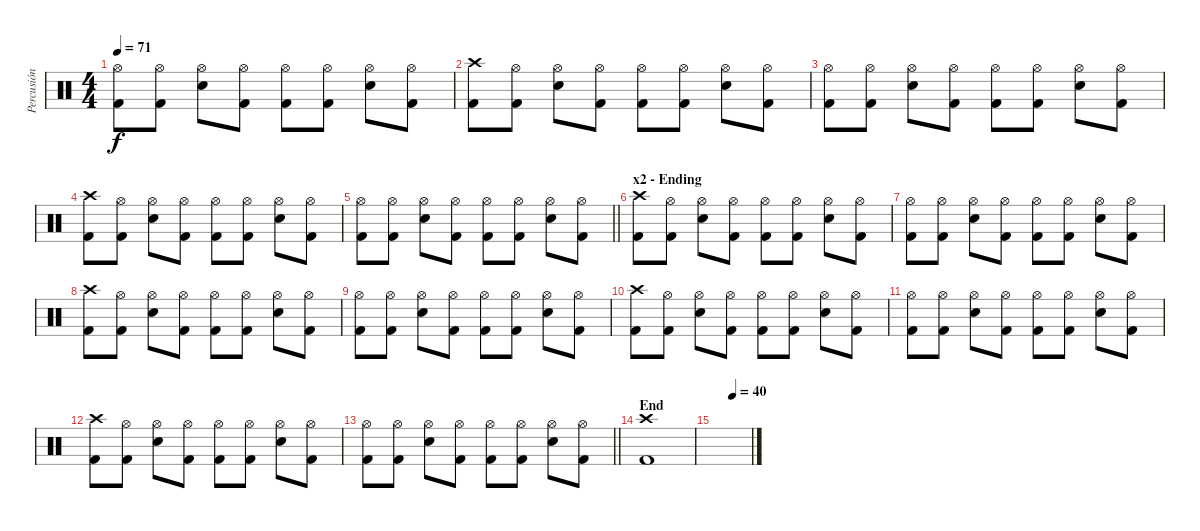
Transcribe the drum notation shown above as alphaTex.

\track ("Percusión" "Percusión") {instrument percussion}
\staff {score}
\articulation defaults
\ts (4 4)
\tempo 71
\clef neutral
\ks c
("Hi-Hat (open)" "Kick (hit) 2").8{dy f} ("Hi-Hat (open)" "Kick (hit) 2").8 ("Hi-Hat (open)" "Snare (hit) 2").8 ("Hi-Hat (open)" "Kick (hit) 2").8 ("Hi-Hat (open)" "Kick (hit) 2").8 ("Hi-Hat (open)" "Kick (hit) 2").8 ("Hi-Hat (open)" "Snare (hit) 2").8 ("Hi-Hat (open)" "Kick (hit) 2").8 |
("Crash high (hit)" "Kick (hit) 2").8 ("Hi-Hat (open)" "Kick (hit) 2").8 ("Hi-Hat (open)" "Snare (hit) 2").8 ("Hi-Hat (open)" "Kick (hit) 2").8 ("Hi-Hat (open)" "Kick (hit) 2").8 ("Hi-Hat (open)" "Kick (hit) 2").8 ("Hi-Hat (open)" "Snare (hit) 2").8 ("Hi-Hat (open)" "Kick (hit) 2").8 |
("Hi-Hat (open)" "Kick (hit) 2").8 ("Hi-Hat (open)" "Kick (hit) 2").8 ("Hi-Hat (open)" "Snare (hit) 2").8 ("Hi-Hat (open)" "Kick (hit) 2").8 ("Hi-Hat (open)" "Kick (hit) 2").8 ("Hi-Hat (open)" "Kick (hit) 2").8 ("Hi-Hat (open)" "Snare (hit) 2").8 ("Hi-Hat (open)" "Kick (hit) 2").8 |
("Crash high (hit)" "Kick (hit) 2").8 ("Hi-Hat (open)" "Kick (hit) 2").8 ("Hi-Hat (open)" "Snare (hit) 2").8 ("Hi-Hat (open)" "Kick (hit) 2").8 ("Hi-Hat (open)" "Kick (hit) 2").8 ("Hi-Hat (open)" "Kick (hit) 2").8 ("Hi-Hat (open)" "Snare (hit) 2").8 ("Hi-Hat (open)" "Kick (hit) 2").8 |
\barLineRight lightlight
("Hi-Hat (open)" "Kick (hit) 2").8 ("Hi-Hat (open)" "Kick (hit) 2").8 ("Hi-Hat (open)" "Snare (hit) 2").8 ("Hi-Hat (open)" "Kick (hit) 2").8 ("Hi-Hat (open)" "Kick (hit) 2").8 ("Hi-Hat (open)" "Kick (hit) 2").8 ("Hi-Hat (open)" "Snare (hit) 2").8 ("Hi-Hat (open)" "Kick (hit) 2").8 |
\section ("" "x2 - Ending")
("Crash high (hit)" "Kick (hit) 2").8 ("Hi-Hat (open)" "Kick (hit) 2").8 ("Hi-Hat (open)" "Snare (hit) 2").8 ("Hi-Hat (open)" "Kick (hit) 2").8 ("Hi-Hat (open)" "Kick (hit) 2").8 ("Hi-Hat (open)" "Kick (hit) 2").8 ("Hi-Hat (open)" "Snare (hit) 2").8 ("Hi-Hat (open)" "Kick (hit) 2").8 |
("Hi-Hat (open)" "Kick (hit) 2").8 ("Hi-Hat (open)" "Kick (hit) 2").8 ("Hi-Hat (open)" "Snare (hit) 2").8 ("Hi-Hat (open)" "Kick (hit) 2").8 ("Hi-Hat (open)" "Kick (hit) 2").8 ("Hi-Hat (open)" "Kick (hit) 2").8 ("Hi-Hat (open)" "Snare (hit) 2").8 ("Hi-Hat (open)" "Kick (hit) 2").8 |
("Crash high (hit)" "Kick (hit) 2").8 ("Hi-Hat (open)" "Kick (hit) 2").8 ("Hi-Hat (open)" "Snare (hit) 2").8 ("Hi-Hat (open)" "Kick (hit) 2").8 ("Hi-Hat (open)" "Kick (hit) 2").8 ("Hi-Hat (open)" "Kick (hit) 2").8 ("Hi-Hat (open)" "Snare (hit) 2").8 ("Hi-Hat (open)" "Kick (hit) 2").8 |
("Hi-Hat (open)" "Kick (hit) 2").8 ("Hi-Hat (open)" "Kick (hit) 2").8 ("Hi-Hat (open)" "Snare (hit) 2").8 ("Hi-Hat (open)" "Kick (hit) 2").8 ("Hi-Hat (open)" "Kick (hit) 2").8 ("Hi-Hat (open)" "Kick (hit) 2").8 ("Hi-Hat (open)" "Snare (hit) 2").8 ("Hi-Hat (open)" "Kick (hit) 2").8 |
("Crash high (hit)" "Kick (hit) 2").8 ("Hi-Hat (open)" "Kick (hit) 2").8 ("Hi-Hat (open)" "Snare (hit) 2").8 ("Hi-Hat (open)" "Kick (hit) 2").8 ("Hi-Hat (open)" "Kick (hit) 2").8 ("Hi-Hat (open)" "Kick (hit) 2").8 ("Hi-Hat (open)" "Snare (hit) 2").8 ("Hi-Hat (open)" "Kick (hit) 2").8 |
("Hi-Hat (open)" "Kick (hit) 2").8 ("Hi-Hat (open)" "Kick (hit) 2").8 ("Hi-Hat (open)" "Snare (hit) 2").8 ("Hi-Hat (open)" "Kick (hit) 2").8 ("Hi-Hat (open)" "Kick (hit) 2").8 ("Hi-Hat (open)" "Kick (hit) 2").8 ("Hi-Hat (open)" "Snare (hit) 2").8 ("Hi-Hat (open)" "Kick (hit) 2").8 |
("Crash high (hit)" "Kick (hit) 2").8 ("Hi-Hat (open)" "Kick (hit) 2").8 ("Hi-Hat (open)" "Snare (hit) 2").8 ("Hi-Hat (open)" "Kick (hit) 2").8 ("Hi-Hat (open)" "Kick (hit) 2").8 ("Hi-Hat (open)" "Kick (hit) 2").8 ("Hi-Hat (open)" "Snare (hit) 2").8 ("Hi-Hat (open)" "Kick (hit) 2").8 |
\barLineRight lightlight
("Hi-Hat (open)" "Kick (hit) 2").8 ("Hi-Hat (open)" "Kick (hit) 2").8 ("Hi-Hat (open)" "Snare (hit) 2").8 ("Hi-Hat (open)" "Kick (hit) 2").8 ("Hi-Hat (open)" "Kick (hit) 2").8 ("Hi-Hat (open)" "Kick (hit) 2").8 ("Hi-Hat (open)" "Snare (hit) 2").8 ("Hi-Hat (open)" "Kick (hit) 2").8 |
\section ("" "End")
("Crash high (hit)" "Kick (hit) 2").1 |
\tempo (40 0.5)
